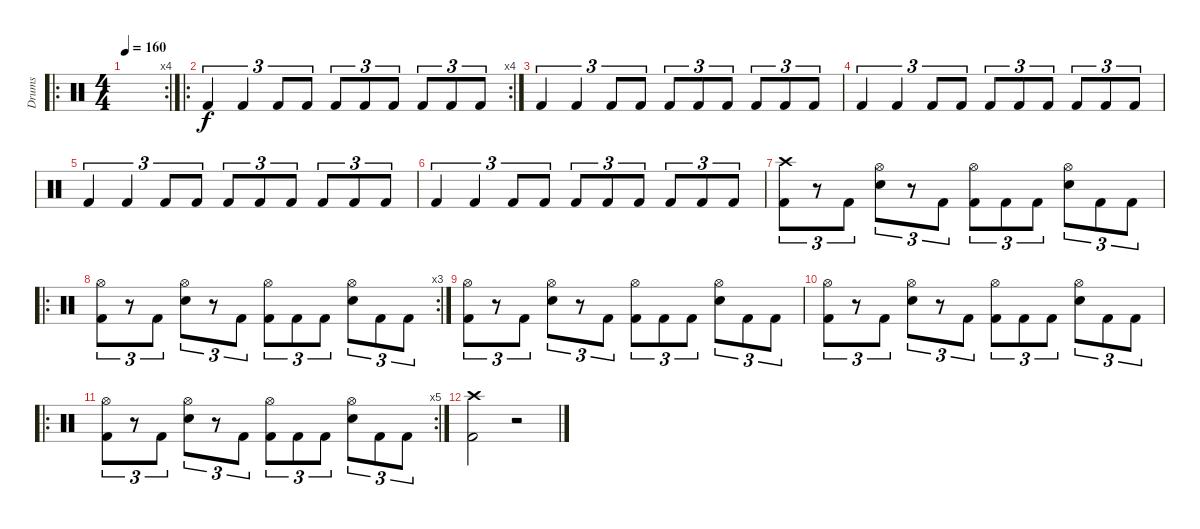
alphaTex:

\track ("Drums" "Drums") {instrument percussion}
\staff {score}
\articulation defaults
\ro
\rc 4
\ts (4 4)
\tempo 160
\clef neutral
\ks c
|
\ro
\rc 4 "Kick (hit) 2".4{tu (3 2)} "Kick (hit) 2".4{tu (3 2)} "Kick (hit) 2".8{tu (3 2)} "Kick (hit) 2".8{tu (3 2)} "Kick (hit) 2".8{tu (3 2)} "Kick (hit) 2".8{tu (3 2)} "Kick (hit) 2".8{tu (3 2)} "Kick (hit) 2".8{tu (3 2)} "Kick (hit) 2".8{tu (3 2)} "Kick (hit) 2".8{tu (3 2)}
|
"Kick (hit) 2".4{tu (3 2)} "Kick (hit) 2".4{tu (3 2)} "Kick (hit) 2".8{tu (3 2)} "Kick (hit) 2".8{tu (3 2)} "Kick (hit) 2".8{tu (3 2)} "Kick (hit) 2".8{tu (3 2)} "Kick (hit) 2".8{tu (3 2)} "Kick (hit) 2".8{tu (3 2)} "Kick (hit) 2".8{tu (3 2)} "Kick (hit) 2".8{tu (3 2)} |
"Kick (hit) 2".4{tu (3 2)} "Kick (hit) 2".4{tu (3 2)} "Kick (hit) 2".8{tu (3 2)} "Kick (hit) 2".8{tu (3 2)} "Kick (hit) 2".8{tu (3 2)} "Kick (hit) 2".8{tu (3 2)} "Kick (hit) 2".8{tu (3 2)} "Kick (hit) 2".8{tu (3 2)} "Kick (hit) 2".8{tu (3 2)} "Kick (hit) 2".8{tu (3 2)} |
"Kick (hit) 2".4{tu (3 2)} "Kick (hit) 2".4{tu (3 2)} "Kick (hit) 2".8{tu (3 2)} "Kick (hit) 2".8{tu (3 2)} "Kick (hit) 2".8{tu (3 2)} "Kick (hit) 2".8{tu (3 2)} "Kick (hit) 2".8{tu (3 2)} "Kick (hit) 2".8{tu (3 2)} "Kick (hit) 2".8{tu (3 2)} "Kick (hit) 2".8{tu (3 2)} |
"Kick (hit) 2".4{tu (3 2)} "Kick (hit) 2".4{tu (3 2)} "Kick (hit) 2".8{tu (3 2)} "Kick (hit) 2".8{tu (3 2)} "Kick (hit) 2".8{tu (3 2)} "Kick (hit) 2".8{tu (3 2)} "Kick (hit) 2".8{tu (3 2)} "Kick (hit) 2".8{tu (3 2)} "Kick (hit) 2".8{tu (3 2)} "Kick (hit) 2".8{tu (3 2)} |
("Crash high (hit)" "Kick (hit) 2").8{tu (3 2)} r.8{tu (3 2)} "Kick (hit) 2".8{tu (3 2)} ("Hi-Hat (open)" "Snare (hit) 2").8{tu (3 2)} r.8{tu (3 2)} "Kick (hit) 2".8{tu (3 2)} ("Hi-Hat (open)" "Kick (hit) 2").8{tu (3 2)} "Kick (hit) 2".8{tu (3 2)} "Kick (hit) 2".8{tu (3 2)} ("Hi-Hat (open)" "Snare (hit) 2").8{tu (3 2)} "Kick (hit) 2".8{tu (3 2)} "Kick (hit) 2".8{tu (3 2)} |
\ro
\rc 3
("Hi-Hat (open)" "Kick (hit) 2").8{tu (3 2)} r.8{tu (3 2)} "Kick (hit) 2".8{tu (3 2)} ("Hi-Hat (open)" "Snare (hit) 2").8{tu (3 2)} r.8{tu (3 2)} "Kick (hit) 2".8{tu (3 2)} ("Hi-Hat (open)" "Kick (hit) 2").8{tu (3 2)} "Kick (hit) 2".8{tu (3 2)} "Kick (hit) 2".8{tu (3 2)} ("Hi-Hat (open)" "Snare (hit) 2").8{tu (3 2)} "Kick (hit) 2".8{tu (3 2)} "Kick (hit) 2".8{tu (3 2)} |
("Hi-Hat (open)" "Kick (hit) 2").8{tu (3 2)} r.8{tu (3 2)} "Kick (hit) 2".8{tu (3 2)} ("Hi-Hat (open)" "Snare (hit) 2").8{tu (3 2)} r.8{tu (3 2)} "Kick (hit) 2".8{tu (3 2)} ("Hi-Hat (open)" "Kick (hit) 2").8{tu (3 2)} "Kick (hit) 2".8{tu (3 2)} "Kick (hit) 2".8{tu (3 2)} ("Hi-Hat (open)" "Snare (hit) 2").8{tu (3 2)} "Kick (hit) 2".8{tu (3 2)} "Kick (hit) 2".8{tu (3 2)} |
("Hi-Hat (open)" "Kick (hit) 2").8{tu (3 2)} r.8{tu (3 2)} "Kick (hit) 2".8{tu (3 2)} ("Hi-Hat (open)" "Snare (hit) 2").8{tu (3 2)} r.8{tu (3 2)} "Kick (hit) 2".8{tu (3 2)} ("Hi-Hat (open)" "Kick (hit) 2").8{tu (3 2)} "Kick (hit) 2".8{tu (3 2)} "Kick (hit) 2".8{tu (3 2)} ("Hi-Hat (open)" "Snare (hit) 2").8{tu (3 2)} "Kick (hit) 2".8{tu (3 2)} "Kick (hit) 2".8{tu (3 2)} |
\ro
\rc 5
("Hi-Hat (open)" "Kick (hit) 2").8{tu (3 2)} r.8{tu (3 2)} "Kick (hit) 2".8{tu (3 2)} ("Hi-Hat (open)" "Snare (hit) 2").8{tu (3 2)} r.8{tu (3 2)} "Kick (hit) 2".8{tu (3 2)} ("Hi-Hat (open)" "Kick (hit) 2").8{tu (3 2)} "Kick (hit) 2".8{tu (3 2)} "Kick (hit) 2".8{tu (3 2)} ("Hi-Hat (open)" "Snare (hit) 2").8{tu (3 2)} "Kick (hit) 2".8{tu (3 2)} "Kick (hit) 2".8{tu (3 2)} |
("Crash high (hit)" "Kick (hit) 2").2 r.2
